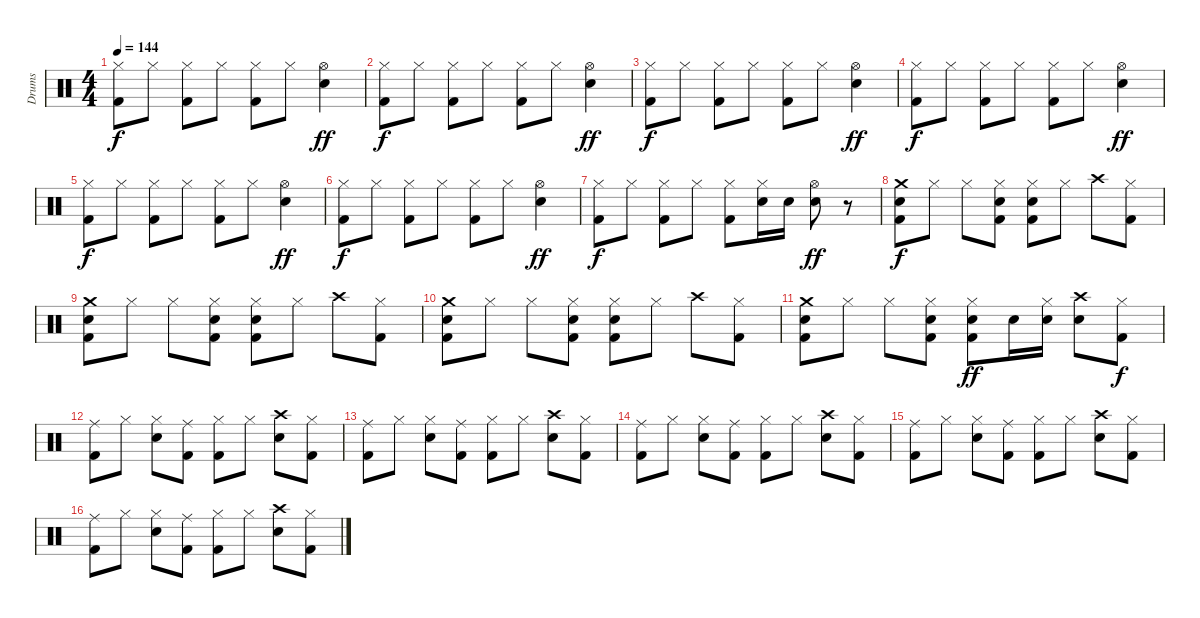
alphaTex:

\track ("Drums" "Drums") {instrument percussion}
\staff {score}
\articulation defaults
\ts (4 4)
\tempo 144
\clef neutral
\ks c
("Hi-Hat (closed)" "Kick (hit) 2").8{dy f} "Hi-Hat (closed)".8 ("Hi-Hat (closed)" "Kick (hit) 2").8 "Hi-Hat (closed)".8 ("Hi-Hat (closed)" "Kick (hit) 2").8 "Hi-Hat (closed)".8 ("Hi-Hat (open)" "Snare (hit) 2").4{dy ff} |
("Hi-Hat (closed)" "Kick (hit) 2").8{dy f} "Hi-Hat (closed)".8 ("Hi-Hat (closed)" "Kick (hit) 2").8 "Hi-Hat (closed)".8 ("Hi-Hat (closed)" "Kick (hit) 2").8 "Hi-Hat (closed)".8 ("Hi-Hat (open)" "Snare (hit) 2").4{dy ff} |
("Hi-Hat (closed)" "Kick (hit) 2").8{dy f} "Hi-Hat (closed)".8 ("Hi-Hat (closed)" "Kick (hit) 2").8 "Hi-Hat (closed)".8 ("Hi-Hat (closed)" "Kick (hit) 2").8 "Hi-Hat (closed)".8 ("Hi-Hat (open)" "Snare (hit) 2").4{dy ff} |
("Hi-Hat (closed)" "Kick (hit) 2").8{dy f} "Hi-Hat (closed)".8 ("Hi-Hat (closed)" "Kick (hit) 2").8 "Hi-Hat (closed)".8 ("Hi-Hat (closed)" "Kick (hit) 2").8 "Hi-Hat (closed)".8 ("Hi-Hat (open)" "Snare (hit) 2").4{dy ff} |
("Hi-Hat (closed)" "Kick (hit) 2").8{dy f} "Hi-Hat (closed)".8 ("Hi-Hat (closed)" "Kick (hit) 2").8 "Hi-Hat (closed)".8 ("Hi-Hat (closed)" "Kick (hit) 2").8 "Hi-Hat (closed)".8 ("Hi-Hat (open)" "Snare (hit) 2").4{dy ff} |
("Hi-Hat (closed)" "Kick (hit) 2").8{dy f} "Hi-Hat (closed)".8 ("Hi-Hat (closed)" "Kick (hit) 2").8 "Hi-Hat (closed)".8 ("Hi-Hat (closed)" "Kick (hit) 2").8 "Hi-Hat (closed)".8 ("Hi-Hat (open)" "Snare (hit) 2").4{dy ff} |
("Hi-Hat (closed)" "Kick (hit) 2").8{dy f} "Hi-Hat (closed)".8 ("Hi-Hat (closed)" "Kick (hit) 2").8 "Hi-Hat (closed)".8 ("Hi-Hat (closed)" "Kick (hit) 2").8 ("Hi-Hat (closed)" "Snare (hit) 2").16 "Snare (hit) 2".16 ("Hi-Hat (open)" "Snare (hit) 2").8{dy ff} r.8 |
("Crash medium (hit)" "Snare (hit) 2" "Kick (hit) 2").8{dy f} "Hi-Hat (closed)".8 "Hi-Hat (closed)".8 ("Hi-Hat (closed)" "Snare (hit) 2" "Kick (hit) 2").8 ("Hi-Hat (closed)" "Snare (hit) 2" "Kick (hit) 2").8 "Hi-Hat (closed)".8 "Crash high (hit)".8 ("Hi-Hat (closed)" "Kick (hit) 2").8 |
("Crash medium (hit)" "Snare (hit) 2" "Kick (hit) 2").8 "Hi-Hat (closed)".8 "Hi-Hat (closed)".8 ("Hi-Hat (closed)" "Snare (hit) 2" "Kick (hit) 2").8 ("Hi-Hat (closed)" "Snare (hit) 2" "Kick (hit) 2").8 "Hi-Hat (closed)".8 "Crash high (hit)".8 ("Hi-Hat (closed)" "Kick (hit) 2").8 |
("Crash medium (hit)" "Snare (hit) 2" "Kick (hit) 2").8 "Hi-Hat (closed)".8 "Hi-Hat (closed)".8 ("Hi-Hat (closed)" "Snare (hit) 2" "Kick (hit) 2").8 ("Hi-Hat (closed)" "Snare (hit) 2" "Kick (hit) 2").8 "Hi-Hat (closed)".8 "Crash high (hit)".8 ("Hi-Hat (closed)" "Kick (hit) 2").8 |
("Crash medium (hit)" "Snare (hit) 2" "Kick (hit) 2").8 "Hi-Hat (closed)".8 "Hi-Hat (closed)".8 ("Hi-Hat (closed)" "Snare (hit) 2" "Kick (hit) 2").8 ("Hi-Hat (closed)" "Snare (hit) 2" "Kick (hit) 2").8{dy ff} "Snare (hit) 2".16 ("Hi-Hat (closed)" "Snare (hit) 2").16 ("Crash high (hit)" "Snare (hit) 2").8 ("Hi-Hat (closed)" "Kick (hit) 2").8{dy f} |
("Ride (middle)" "Kick (hit) 2").8 "Hi-Hat (closed)".8 ("Hi-Hat (closed)" "Snare (hit) 2").8 ("Ride (middle)" "Kick (hit) 2").8 ("Hi-Hat (closed)" "Kick (hit) 2").8 "Hi-Hat (closed)".8 ("Crash high (hit)" "Snare (hit) 2").8 ("Hi-Hat (closed)" "Kick (hit) 2").8 |
("Ride (middle)" "Kick (hit) 2").8 "Hi-Hat (closed)".8 ("Hi-Hat (closed)" "Snare (hit) 2").8 ("Ride (middle)" "Kick (hit) 2").8 ("Hi-Hat (closed)" "Kick (hit) 2").8 "Hi-Hat (closed)".8 ("Crash high (hit)" "Snare (hit) 2").8 ("Hi-Hat (closed)" "Kick (hit) 2").8 |
("Ride (middle)" "Kick (hit) 2").8 "Hi-Hat (closed)".8 ("Hi-Hat (closed)" "Snare (hit) 2").8 ("Ride (middle)" "Kick (hit) 2").8 ("Hi-Hat (closed)" "Kick (hit) 2").8 "Hi-Hat (closed)".8 ("Crash high (hit)" "Snare (hit) 2").8 ("Hi-Hat (closed)" "Kick (hit) 2").8 |
("Ride (middle)" "Kick (hit) 2").8 "Hi-Hat (closed)".8 ("Hi-Hat (closed)" "Snare (hit) 2").8 ("Ride (middle)" "Kick (hit) 2").8 ("Hi-Hat (closed)" "Kick (hit) 2").8 "Hi-Hat (closed)".8 ("Crash high (hit)" "Snare (hit) 2").8 ("Hi-Hat (closed)" "Kick (hit) 2").8 |
("Ride (middle)" "Kick (hit) 2").8 "Hi-Hat (closed)".8 ("Hi-Hat (closed)" "Snare (hit) 2").8 ("Ride (middle)" "Kick (hit) 2").8 ("Hi-Hat (closed)" "Kick (hit) 2").8 "Hi-Hat (closed)".8 ("Crash high (hit)" "Snare (hit) 2").8 ("Hi-Hat (closed)" "Kick (hit) 2").8
